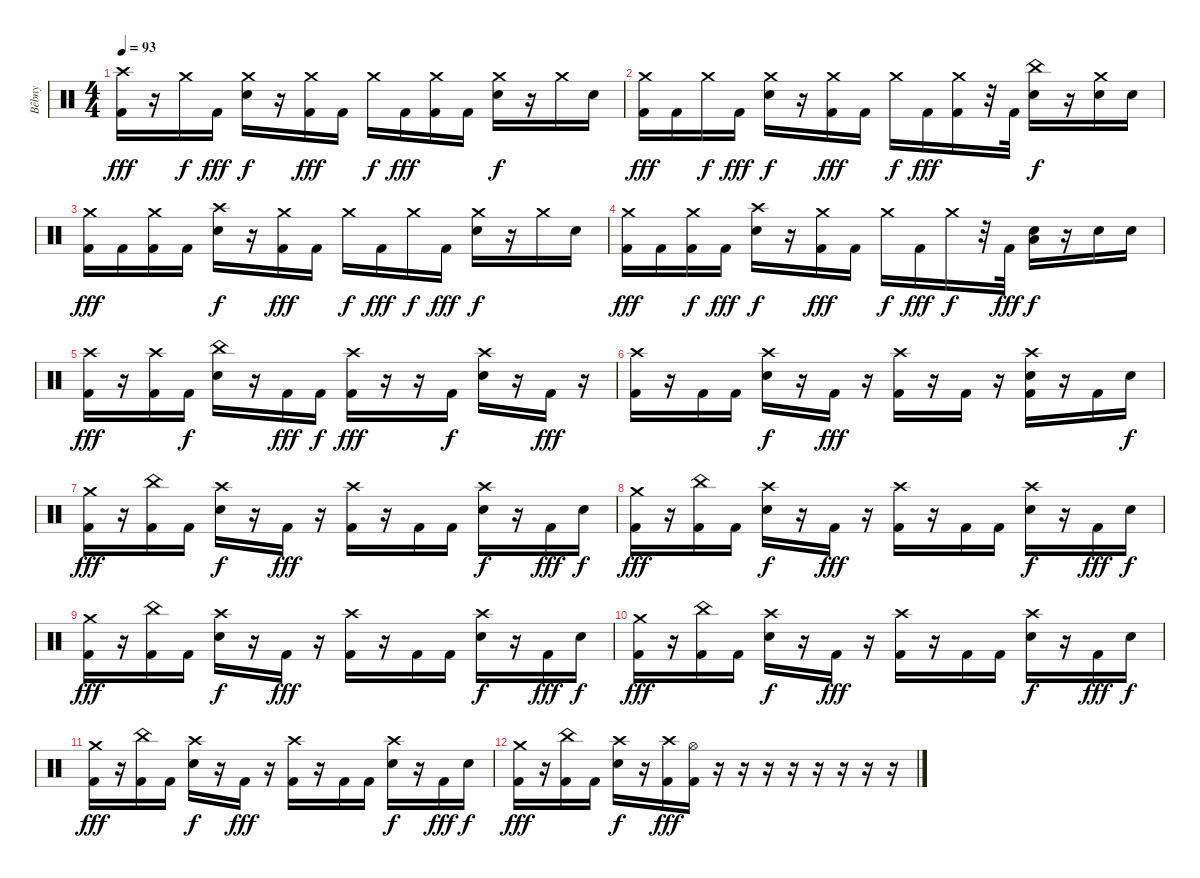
\track ("Bêbny" "Bêbny") {instrument percussion}
\staff {score}
\articulation defaults
\ts (4 4)
\tempo 93
\clef neutral
\ks c
("Crash high (hit)" "Kick (hit) 2").16{dy fff} r.16 "Crash medium (hit)".16{dy f} "Kick (hit) 2".16{dy fff} ("Crash medium (hit)" "Electric Snare (hit)").16{dy f} r.16 ("Crash medium (hit)" "Kick (hit) 2").16{dy fff} "Kick (hit) 2".16 "Crash medium (hit)".16{dy f} "Kick (hit) 2".16{dy fff} ("Crash medium (hit)" "Kick (hit) 2").16 "Kick (hit) 2".16 ("Crash medium (hit)" "Electric Snare (hit)").16{dy f} r.16 "Crash medium (hit)".16 "Electric Snare (hit)".16 |
("Crash medium (hit)" "Kick (hit) 2").16{dy fff} "Kick (hit) 2".16 "Crash medium (hit)".16{dy f} "Kick (hit) 2".16{dy fff} ("Crash medium (hit)" "Electric Snare (hit)").16{dy f} r.16 ("Crash medium (hit)" "Kick (hit) 2").16{dy fff} "Kick (hit) 2".16 "Crash medium (hit)".16{dy f} "Kick (hit) 2".16{dy fff} ("Crash medium (hit)" "Kick (hit) 2").16 r.32 "Kick (hit) 2".32 ("China (hit)" "Electric Snare (hit)").16{dy f} r.16 ("Crash medium (hit)" "Electric Snare (hit)").16 "Electric Snare (hit)".16 |
("Crash medium (hit)" "Kick (hit) 2").16{dy fff} "Kick (hit) 2".16 ("Crash medium (hit)" "Kick (hit) 2").16 "Kick (hit) 2".16 ("Crash high (hit)" "Electric Snare (hit)").16{dy f} r.16 ("Crash medium (hit)" "Kick (hit) 2").16{dy fff} "Kick (hit) 2".16 "Crash medium (hit)".16{dy f} "Kick (hit) 2".16{dy fff} "Crash medium (hit)".16{dy f} "Kick (hit) 2".16{dy fff} ("Crash medium (hit)" "Electric Snare (hit)").16{dy f} r.16 "Crash medium (hit)".16 "Electric Snare (hit)".16 |
("Crash medium (hit)" "Kick (hit) 2").16{dy fff} "Kick (hit) 2".16 ("Crash medium (hit)" "Kick (hit) 2").16{dy f} "Kick (hit) 2".16{dy fff} ("Crash high (hit)" "Electric Snare (hit)").16{dy f} r.16 ("Crash medium (hit)" "Kick (hit) 2").16{dy fff} "Kick (hit) 2".16 "Crash medium (hit)".16{dy f} "Kick (hit) 2".16{dy fff} "Crash medium (hit)".16{dy f} r.32 "Kick (hit) 2".32{dy fff} ("Electric Snare (hit)" "Low Tom (hit)").16{dy f} r.16 "Electric Snare (hit)".16 "Electric Snare (hit)".16 |
("Crash high (hit)" "Kick (hit) 2").16{dy fff} r.16 ("Crash high (hit)" "Kick (hit) 2").16 "Kick (hit) 2".16{dy f} ("China (hit)" "Electric Snare (hit)").16 r.16 "Kick (hit) 2".16{dy fff} "Kick (hit) 2".16{dy f} ("Crash high (hit)" "Kick (hit) 2").16{dy fff} r.16 r.16 "Kick (hit) 2".16{dy f} ("Crash high (hit)" "Electric Snare (hit)").16 r.16 "Kick (hit) 2".16{dy fff} r.16 |
("Crash high (hit)" "Kick (hit) 2").16 r.16 "Kick (hit) 2".16 "Kick (hit) 2".16 ("Crash high (hit)" "Electric Snare (hit)").16{dy f} r.16 "Kick (hit) 2".16{dy fff} r.16 ("Crash high (hit)" "Kick (hit) 2").16 r.16 "Kick (hit) 2".16 r.16 ("Crash high (hit)" "Electric Snare (hit)" "Kick (hit) 2").16 r.16 "Kick (hit) 2".16 "Electric Snare (hit)".16{dy f} |
("Crash medium (hit)" "Kick (hit) 2").16{dy fff} r.16 ("China (hit)" "Kick (hit) 2").16 "Kick (hit) 2".16 ("Crash high (hit)" "Electric Snare (hit)").16{dy f} r.16 "Kick (hit) 2".16{dy fff} r.16 ("Crash high (hit)" "Kick (hit) 2").16 r.16 "Kick (hit) 2".16 "Kick (hit) 2".16 ("Crash high (hit)" "Electric Snare (hit)").16{dy f} r.16 "Kick (hit) 2".16{dy fff} "Electric Snare (hit)".16{dy f} |
("Crash medium (hit)" "Kick (hit) 2").16{dy fff} r.16 ("China (hit)" "Kick (hit) 2").16 "Kick (hit) 2".16 ("Crash high (hit)" "Electric Snare (hit)").16{dy f} r.16 "Kick (hit) 2".16{dy fff} r.16 ("Crash high (hit)" "Kick (hit) 2").16 r.16 "Kick (hit) 2".16 "Kick (hit) 2".16 ("Crash high (hit)" "Electric Snare (hit)").16{dy f} r.16 "Kick (hit) 2".16{dy fff} "Electric Snare (hit)".16{dy f} |
("Crash medium (hit)" "Kick (hit) 2").16{dy fff} r.16 ("China (hit)" "Kick (hit) 2").16 "Kick (hit) 2".16 ("Crash high (hit)" "Electric Snare (hit)").16{dy f} r.16 "Kick (hit) 2".16{dy fff} r.16 ("Crash high (hit)" "Kick (hit) 2").16 r.16 "Kick (hit) 2".16 "Kick (hit) 2".16 ("Crash high (hit)" "Electric Snare (hit)").16{dy f} r.16 "Kick (hit) 2".16{dy fff} "Electric Snare (hit)".16{dy f} |
("Crash medium (hit)" "Kick (hit) 2").16{dy fff} r.16 ("China (hit)" "Kick (hit) 2").16 "Kick (hit) 2".16 ("Crash high (hit)" "Electric Snare (hit)").16{dy f} r.16 "Kick (hit) 2".16{dy fff} r.16 ("Crash high (hit)" "Kick (hit) 2").16 r.16 "Kick (hit) 2".16 "Kick (hit) 2".16 ("Crash high (hit)" "Electric Snare (hit)").16{dy f} r.16 "Kick (hit) 2".16{dy fff} "Electric Snare (hit)".16{dy f} |
("Crash medium (hit)" "Kick (hit) 2").16{dy fff} r.16 ("China (hit)" "Kick (hit) 2").16 "Kick (hit) 2".16 ("Crash high (hit)" "Electric Snare (hit)").16{dy f} r.16 "Kick (hit) 2".16{dy fff} r.16 ("Crash high (hit)" "Kick (hit) 2").16 r.16 "Kick (hit) 2".16 "Kick (hit) 2".16 ("Crash high (hit)" "Electric Snare (hit)").16{dy f} r.16 "Kick (hit) 2".16{dy fff} "Electric Snare (hit)".16{dy f} |
("Crash medium (hit)" "Kick (hit) 2").16{dy fff} r.16 ("China (hit)" "Kick (hit) 2").16 "Kick (hit) 2".16 ("Crash high (hit)" "Electric Snare (hit)").16{dy f} r.16 ("Crash high (hit)" "Kick (hit) 2").16{dy fff} ("Hi-Hat (open)" "Kick (hit) 2").16 r.16 r.16 r.16 r.16 r.16 r.16 r.16 r.16
